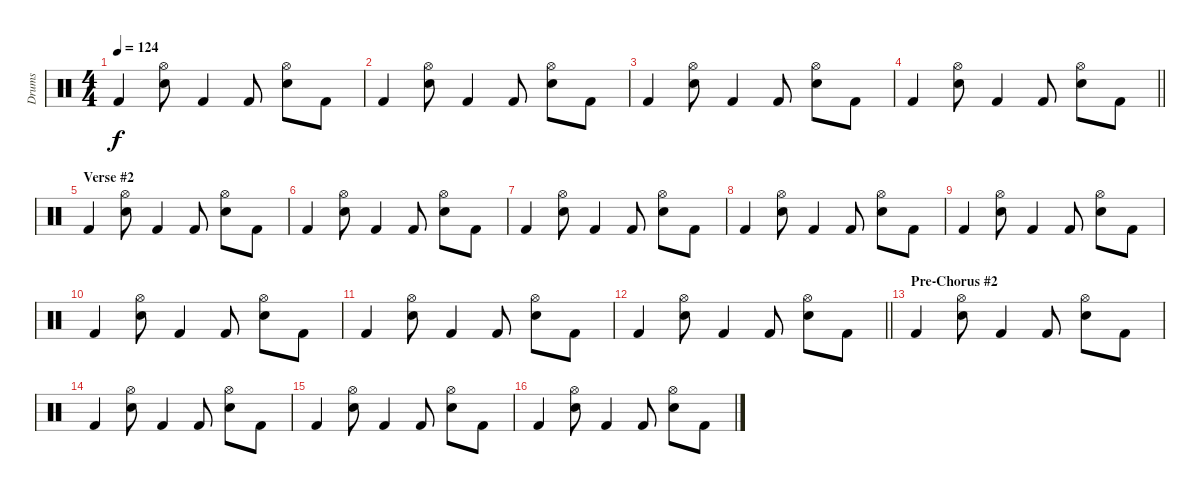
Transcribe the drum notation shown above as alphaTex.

\track ("Drums" "Drums") {instrument percussion}
\staff {score}
\articulation defaults
\ts (4 4)
\tempo 124
\clef neutral
\ks c "Kick (hit) 2".4{dy f}
("Hi-Hat (open)" "Snare (hit) 2").8 "Kick (hit) 2".4 "Kick (hit) 2".8 ("Hi-Hat (open)" "Snare (hit) 2").8 "Kick (hit) 2".8 |
"Kick (hit) 2".4 ("Hi-Hat (open)" "Snare (hit) 2").8 "Kick (hit) 2".4 "Kick (hit) 2".8 ("Hi-Hat (open)" "Snare (hit) 2").8 "Kick (hit) 2".8 |
"Kick (hit) 2".4 ("Hi-Hat (open)" "Snare (hit) 2").8 "Kick (hit) 2".4 "Kick (hit) 2".8 ("Hi-Hat (open)" "Snare (hit) 2").8 "Kick (hit) 2".8 |
\barLineRight lightlight "Kick (hit) 2".4
("Hi-Hat (open)" "Snare (hit) 2").8 "Kick (hit) 2".4 "Kick (hit) 2".8 ("Hi-Hat (open)" "Snare (hit) 2").8 "Kick (hit) 2".8 |
\section ("" "Verse #2")
"Kick (hit) 2".4 ("Hi-Hat (open)" "Snare (hit) 2").8 "Kick (hit) 2".4 "Kick (hit) 2".8 ("Hi-Hat (open)" "Snare (hit) 2").8 "Kick (hit) 2".8 |
"Kick (hit) 2".4 ("Hi-Hat (open)" "Snare (hit) 2").8 "Kick (hit) 2".4 "Kick (hit) 2".8 ("Hi-Hat (open)" "Snare (hit) 2").8 "Kick (hit) 2".8 |
"Kick (hit) 2".4 ("Hi-Hat (open)" "Snare (hit) 2").8 "Kick (hit) 2".4 "Kick (hit) 2".8 ("Hi-Hat (open)" "Snare (hit) 2").8 "Kick (hit) 2".8 |
"Kick (hit) 2".4 ("Hi-Hat (open)" "Snare (hit) 2").8 "Kick (hit) 2".4 "Kick (hit) 2".8 ("Hi-Hat (open)" "Snare (hit) 2").8 "Kick (hit) 2".8 |
"Kick (hit) 2".4 ("Hi-Hat (open)" "Snare (hit) 2").8 "Kick (hit) 2".4 "Kick (hit) 2".8 ("Hi-Hat (open)" "Snare (hit) 2").8 "Kick (hit) 2".8 |
"Kick (hit) 2".4 ("Hi-Hat (open)" "Snare (hit) 2").8 "Kick (hit) 2".4 "Kick (hit) 2".8 ("Hi-Hat (open)" "Snare (hit) 2").8 "Kick (hit) 2".8 |
"Kick (hit) 2".4 ("Hi-Hat (open)" "Snare (hit) 2").8 "Kick (hit) 2".4 "Kick (hit) 2".8 ("Hi-Hat (open)" "Snare (hit) 2").8 "Kick (hit) 2".8 |
\barLineRight lightlight "Kick (hit) 2".4
("Hi-Hat (open)" "Snare (hit) 2").8 "Kick (hit) 2".4 "Kick (hit) 2".8 ("Hi-Hat (open)" "Snare (hit) 2").8 "Kick (hit) 2".8 |
\section ("" "Pre-Chorus #2")
"Kick (hit) 2".4 ("Hi-Hat (open)" "Snare (hit) 2").8 "Kick (hit) 2".4 "Kick (hit) 2".8 ("Hi-Hat (open)" "Snare (hit) 2").8 "Kick (hit) 2".8 |
"Kick (hit) 2".4 ("Hi-Hat (open)" "Snare (hit) 2").8 "Kick (hit) 2".4 "Kick (hit) 2".8 ("Hi-Hat (open)" "Snare (hit) 2").8 "Kick (hit) 2".8 |
"Kick (hit) 2".4 ("Hi-Hat (open)" "Snare (hit) 2").8 "Kick (hit) 2".4 "Kick (hit) 2".8 ("Hi-Hat (open)" "Snare (hit) 2").8 "Kick (hit) 2".8 |
"Kick (hit) 2".4 ("Hi-Hat (open)" "Snare (hit) 2").8 "Kick (hit) 2".4 "Kick (hit) 2".8 ("Hi-Hat (open)" "Snare (hit) 2").8 "Kick (hit) 2".8
